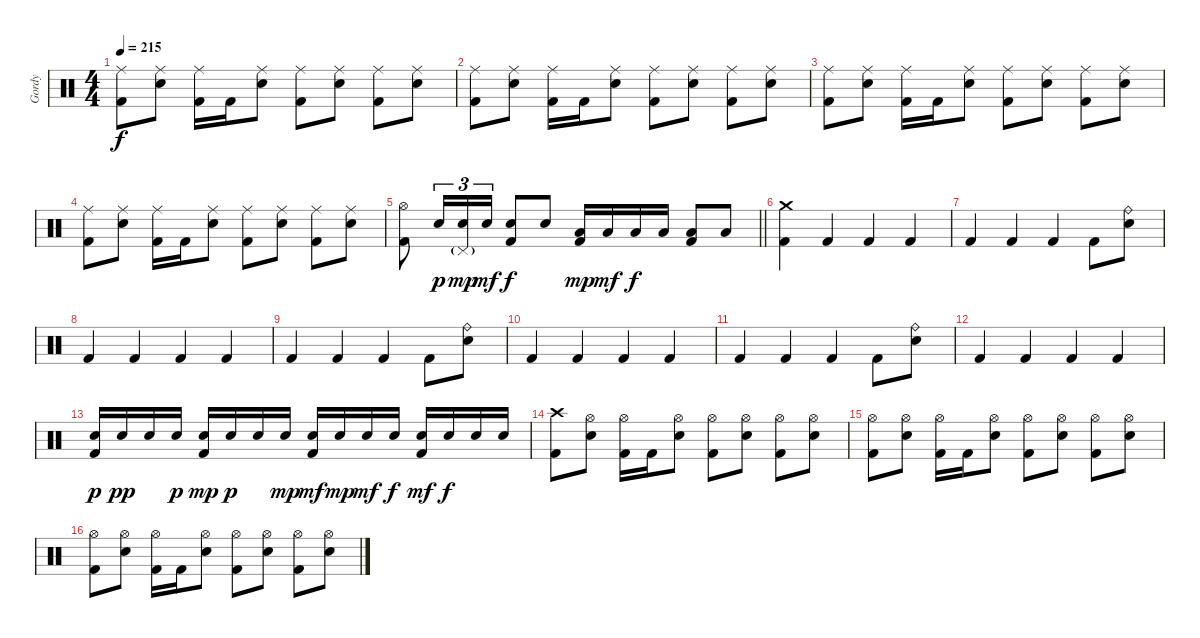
\track ("Gordy" "Gordy") {instrument percussion}
\staff {score}
\articulation defaults
\ts (4 4)
\tempo 215
\clef neutral
\ks c
("Ride (middle)" "Kick (hit) 2").8{dy f} ("Ride (middle)" "Electric Snare (hit)").8 ("Ride (middle)" "Kick (hit) 2").16 "Kick (hit) 2".16 ("Ride (middle)" "Electric Snare (hit)").8 ("Ride (middle)" "Kick (hit) 2").8 ("Ride (middle)" "Electric Snare (hit)").8 ("Ride (middle)" "Kick (hit) 2").8 ("Ride (middle)" "Electric Snare (hit)").8 |
("Ride (middle)" "Kick (hit) 2").8 ("Ride (middle)" "Electric Snare (hit)").8 ("Ride (middle)" "Kick (hit) 2").16 "Kick (hit) 2".16 ("Ride (middle)" "Electric Snare (hit)").8 ("Ride (middle)" "Kick (hit) 2").8 ("Ride (middle)" "Electric Snare (hit)").8 ("Ride (middle)" "Kick (hit) 2").8 ("Ride (middle)" "Electric Snare (hit)").8 |
("Ride (middle)" "Kick (hit) 2").8 ("Ride (middle)" "Electric Snare (hit)").8 ("Ride (middle)" "Kick (hit) 2").16 "Kick (hit) 2".16 ("Ride (middle)" "Electric Snare (hit)").8 ("Ride (middle)" "Kick (hit) 2").8 ("Ride (middle)" "Electric Snare (hit)").8 ("Ride (middle)" "Kick (hit) 2").8 ("Ride (middle)" "Electric Snare (hit)").8 |
("Ride (middle)" "Kick (hit) 2").8 ("Ride (middle)" "Electric Snare (hit)").8 ("Ride (middle)" "Kick (hit) 2").16 "Kick (hit) 2".16 ("Ride (middle)" "Electric Snare (hit)").8 ("Ride (middle)" "Kick (hit) 2").8 ("Ride (middle)" "Electric Snare (hit)").8 ("Ride (middle)" "Kick (hit) 2").8 ("Ride (middle)" "Electric Snare (hit)").8 |
\barLineRight lightlight
("Hi-Hat (open)" "Kick (hit) 2").8 "Electric Snare (hit)".16{tu (3 2) dy p} ("Pedal Hi-Hat (hit)"{g} "Electric Snare (hit)").16{tu (3 2) dy mp} "Electric Snare (hit)".16{tu (3 2) dy mf} ("Electric Snare (hit)" "Kick (hit) 2").8{dy f} "Electric Snare (hit)".8 ("Low Tom (hit)" "Kick (hit) 2").16{dy mp} "Low Tom (hit)".16{dy mf} "Low Tom (hit)".16{dy f} "Low Tom (hit)".16 ("Low Floor Tom (hit)" "Kick (hit) 2").8 "Low Floor Tom (hit)".8 |
\section ("" "")
("Crash medium (hit)" "Kick (hit) 2").4 "Kick (hit) 2".4 "Kick (hit) 2".4 "Kick (hit) 2".4 |
"Kick (hit) 2".4 "Kick (hit) 2".4 "Kick (hit) 2".4 "Kick (hit) 2".8 ("Ride (bell)" "Electric Snare (hit)").8 |
"Kick (hit) 2".4 "Kick (hit) 2".4 "Kick (hit) 2".4 "Kick (hit) 2".4 |
"Kick (hit) 2".4 "Kick (hit) 2".4 "Kick (hit) 2".4 "Kick (hit) 2".8 ("Ride (bell)" "Electric Snare (hit)").8 |
"Kick (hit) 2".4 "Kick (hit) 2".4 "Kick (hit) 2".4 "Kick (hit) 2".4 |
"Kick (hit) 2".4 "Kick (hit) 2".4 "Kick (hit) 2".4 "Kick (hit) 2".8 ("Ride (bell)" "Electric Snare (hit)").8 |
"Kick (hit) 2".4 "Kick (hit) 2".4 "Kick (hit) 2".4 "Kick (hit) 2".4 |
("Electric Snare (hit)" "Kick (hit) 2").16{dy p} "Electric Snare (hit)".16{dy pp} "Electric Snare (hit)".16 "Electric Snare (hit)".16{dy p} ("Electric Snare (hit)" "Kick (hit) 2").16{dy mp} "Electric Snare (hit)".16{dy p} "Electric Snare (hit)".16 "Electric Snare (hit)".16{dy mp} ("Electric Snare (hit)" "Kick (hit) 2").16{dy mf} "Electric Snare (hit)".16{dy mp} "Electric Snare (hit)".16{dy mf} "Electric Snare (hit)".16{dy f} ("Electric Snare (hit)" "Kick (hit) 2").16{dy mf} "Electric Snare (hit)".16{dy f} "Electric Snare (hit)".16 "Electric Snare (hit)".16 |
("Crash high (hit)" "Kick (hit) 2").8 ("Hi-Hat (open)" "Electric Snare (hit)").8 ("Hi-Hat (open)" "Kick (hit) 2").16 "Kick (hit) 2".16 ("Hi-Hat (open)" "Electric Snare (hit)").8 ("Hi-Hat (open)" "Kick (hit) 2").8 ("Hi-Hat (open)" "Electric Snare (hit)").8 ("Hi-Hat (open)" "Kick (hit) 2").8 ("Hi-Hat (open)" "Electric Snare (hit)").8 |
("Hi-Hat (open)" "Kick (hit) 2").8 ("Hi-Hat (open)" "Electric Snare (hit)").8 ("Hi-Hat (open)" "Kick (hit) 2").16 "Kick (hit) 2".16 ("Hi-Hat (open)" "Electric Snare (hit)").8 ("Hi-Hat (open)" "Kick (hit) 2").8 ("Hi-Hat (open)" "Electric Snare (hit)").8 ("Hi-Hat (open)" "Kick (hit) 2").8 ("Hi-Hat (open)" "Electric Snare (hit)").8 |
("Hi-Hat (open)" "Kick (hit) 2").8 ("Hi-Hat (open)" "Electric Snare (hit)").8 ("Hi-Hat (open)" "Kick (hit) 2").16 "Kick (hit) 2".16 ("Hi-Hat (open)" "Electric Snare (hit)").8 ("Hi-Hat (open)" "Kick (hit) 2").8 ("Hi-Hat (open)" "Electric Snare (hit)").8 ("Hi-Hat (open)" "Kick (hit) 2").8 ("Hi-Hat (open)" "Electric Snare (hit)").8
